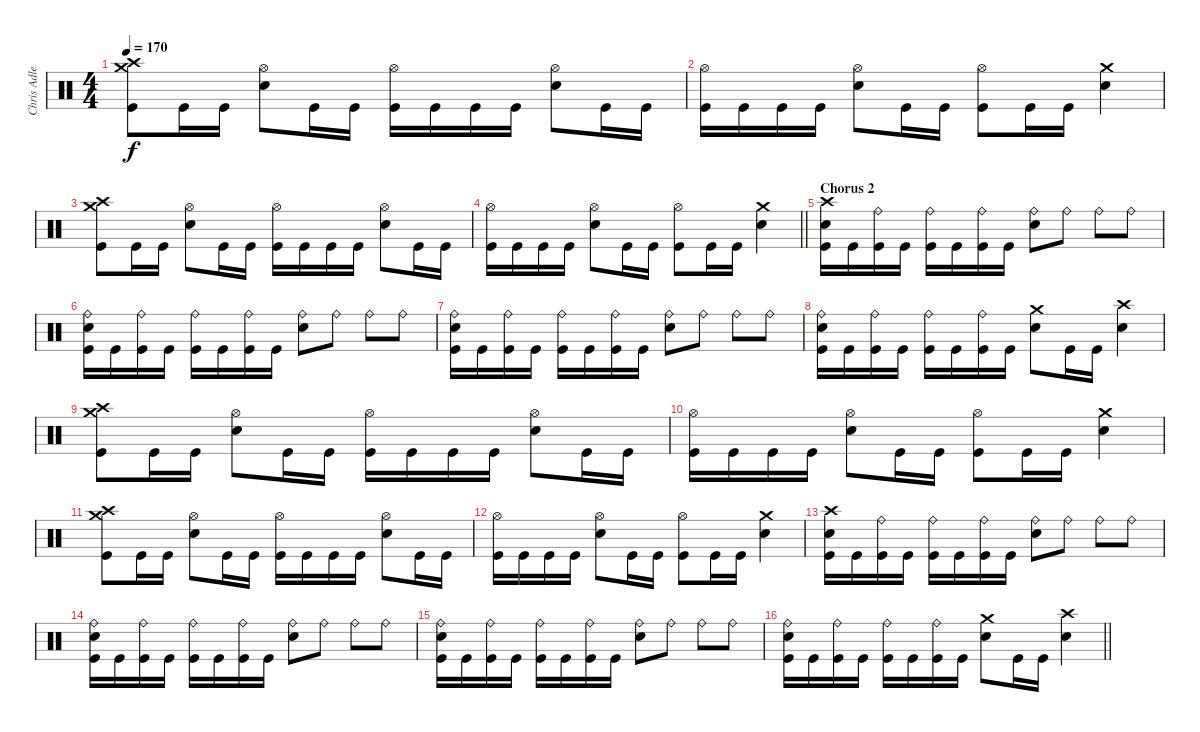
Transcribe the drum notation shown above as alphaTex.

\track ("Chris Adler" "Chris Adle") {instrument percussion}
\staff {score}
\articulation defaults
\ts (4 4)
\tempo 170
\clef neutral
\ks c
("Kick (hit)" "Crash medium (hit)" "Crash high (hit)").8{dy f} "Kick (hit)".16 "Kick (hit)".16 ("Snare (hit) 2" "Hi-Hat (open)").8 "Kick (hit)".16 "Kick (hit)".16 ("Kick (hit)" "Hi-Hat (open)").16 "Kick (hit)".16 "Kick (hit)".16 "Kick (hit)".16 ("Snare (hit) 2" "Hi-Hat (open)").8 "Kick (hit)".16 "Kick (hit)".16 |
("Kick (hit)" "Hi-Hat (open)").16 "Kick (hit)".16 "Kick (hit)".16 "Kick (hit)".16 ("Snare (hit) 2" "Hi-Hat (open)").8 "Kick (hit)".16 "Kick (hit)".16 ("Kick (hit)" "Hi-Hat (open)").8 "Kick (hit)".16 "Kick (hit)".16 ("Crash medium (hit)" "Snare (hit) 2").4 |
("Kick (hit)" "Crash medium (hit)" "Crash high (hit)").8 "Kick (hit)".16 "Kick (hit)".16 ("Snare (hit) 2" "Hi-Hat (open)").8 "Kick (hit)".16 "Kick (hit)".16 ("Kick (hit)" "Hi-Hat (open)").16 "Kick (hit)".16 "Kick (hit)".16 "Kick (hit)".16 ("Snare (hit) 2" "Hi-Hat (open)").8 "Kick (hit)".16 "Kick (hit)".16 |
\barLineRight lightlight
("Kick (hit)" "Hi-Hat (open)").16 "Kick (hit)".16 "Kick (hit)".16 "Kick (hit)".16 ("Snare (hit) 2" "Hi-Hat (open)").8 "Kick (hit)".16 "Kick (hit)".16 ("Kick (hit)" "Hi-Hat (open)").8 "Kick (hit)".16 "Kick (hit)".16 ("Crash medium (hit)" "Snare (hit) 2").4 |
\section ("" "Chorus 2")
("Crash high (hit)" "Snare (hit) 2" "Kick (hit)").16 "Kick (hit)".16 ("Kick (hit)" "Ride (bell)").16 "Kick (hit)".16 ("Kick (hit)" "Ride (bell)").16 "Kick (hit)".16 ("Kick (hit)" "Ride (bell)").16 "Kick (hit)".16 ("Ride (bell)" "Snare (hit) 2").8 "Ride (bell)".8 "Ride (bell)".8 "Ride (bell)".8 |
("Ride (bell)" "Snare (hit) 2" "Kick (hit)").16 "Kick (hit)".16 ("Kick (hit)" "Ride (bell)").16 "Kick (hit)".16 ("Kick (hit)" "Ride (bell)").16 "Kick (hit)".16 ("Kick (hit)" "Ride (bell)").16 "Kick (hit)".16 ("Ride (bell)" "Snare (hit) 2").8 "Ride (bell)".8 "Ride (bell)".8 "Ride (bell)".8 |
("Ride (bell)" "Snare (hit) 2" "Kick (hit)").16 "Kick (hit)".16 ("Kick (hit)" "Ride (bell)").16 "Kick (hit)".16 ("Kick (hit)" "Ride (bell)").16 "Kick (hit)".16 ("Kick (hit)" "Ride (bell)").16 "Kick (hit)".16 ("Ride (bell)" "Snare (hit) 2").8 "Ride (bell)".8 "Ride (bell)".8 "Ride (bell)".8 |
("Ride (bell)" "Snare (hit) 2" "Kick (hit)").16 "Kick (hit)".16 ("Kick (hit)" "Ride (bell)").16 "Kick (hit)".16 ("Kick (hit)" "Ride (bell)").16 "Kick (hit)".16 ("Kick (hit)" "Ride (bell)").16 "Kick (hit)".16 ("Crash medium (hit)" "Snare (hit) 2").8 "Kick (hit)".16 "Kick (hit)".16 ("Crash high (hit)" "Snare (hit) 2").4 |
("Kick (hit)" "Crash medium (hit)" "Crash high (hit)").8 "Kick (hit)".16 "Kick (hit)".16 ("Snare (hit) 2" "Hi-Hat (open)").8 "Kick (hit)".16 "Kick (hit)".16 ("Kick (hit)" "Hi-Hat (open)").16 "Kick (hit)".16 "Kick (hit)".16 "Kick (hit)".16 ("Snare (hit) 2" "Hi-Hat (open)").8 "Kick (hit)".16 "Kick (hit)".16 |
("Kick (hit)" "Hi-Hat (open)").16 "Kick (hit)".16 "Kick (hit)".16 "Kick (hit)".16 ("Snare (hit) 2" "Hi-Hat (open)").8 "Kick (hit)".16 "Kick (hit)".16 ("Kick (hit)" "Hi-Hat (open)").8 "Kick (hit)".16 "Kick (hit)".16 ("Crash medium (hit)" "Snare (hit) 2").4 |
("Kick (hit)" "Crash medium (hit)" "Crash high (hit)").8 "Kick (hit)".16 "Kick (hit)".16 ("Snare (hit) 2" "Hi-Hat (open)").8 "Kick (hit)".16 "Kick (hit)".16 ("Kick (hit)" "Hi-Hat (open)").16 "Kick (hit)".16 "Kick (hit)".16 "Kick (hit)".16 ("Snare (hit) 2" "Hi-Hat (open)").8 "Kick (hit)".16 "Kick (hit)".16 |
("Kick (hit)" "Hi-Hat (open)").16 "Kick (hit)".16 "Kick (hit)".16 "Kick (hit)".16 ("Snare (hit) 2" "Hi-Hat (open)").8 "Kick (hit)".16 "Kick (hit)".16 ("Kick (hit)" "Hi-Hat (open)").8 "Kick (hit)".16 "Kick (hit)".16 ("Crash medium (hit)" "Snare (hit) 2").4 |
("Crash high (hit)" "Snare (hit) 2" "Kick (hit)").16 "Kick (hit)".16 ("Kick (hit)" "Ride (bell)").16 "Kick (hit)".16 ("Kick (hit)" "Ride (bell)").16 "Kick (hit)".16 ("Kick (hit)" "Ride (bell)").16 "Kick (hit)".16 ("Ride (bell)" "Snare (hit) 2").8 "Ride (bell)".8 "Ride (bell)".8 "Ride (bell)".8 |
("Ride (bell)" "Snare (hit) 2" "Kick (hit)").16 "Kick (hit)".16 ("Kick (hit)" "Ride (bell)").16 "Kick (hit)".16 ("Kick (hit)" "Ride (bell)").16 "Kick (hit)".16 ("Kick (hit)" "Ride (bell)").16 "Kick (hit)".16 ("Ride (bell)" "Snare (hit) 2").8 "Ride (bell)".8 "Ride (bell)".8 "Ride (bell)".8 |
("Ride (bell)" "Snare (hit) 2" "Kick (hit)").16 "Kick (hit)".16 ("Kick (hit)" "Ride (bell)").16 "Kick (hit)".16 ("Kick (hit)" "Ride (bell)").16 "Kick (hit)".16 ("Kick (hit)" "Ride (bell)").16 "Kick (hit)".16 ("Ride (bell)" "Snare (hit) 2").8 "Ride (bell)".8 "Ride (bell)".8 "Ride (bell)".8 |
\barLineRight lightlight
("Ride (bell)" "Snare (hit) 2" "Kick (hit)").16 "Kick (hit)".16 ("Kick (hit)" "Ride (bell)").16 "Kick (hit)".16 ("Kick (hit)" "Ride (bell)").16 "Kick (hit)".16 ("Kick (hit)" "Ride (bell)").16 "Kick (hit)".16 ("Crash medium (hit)" "Snare (hit) 2").8 "Kick (hit)".16 "Kick (hit)".16 ("Crash high (hit)" "Snare (hit) 2").4
